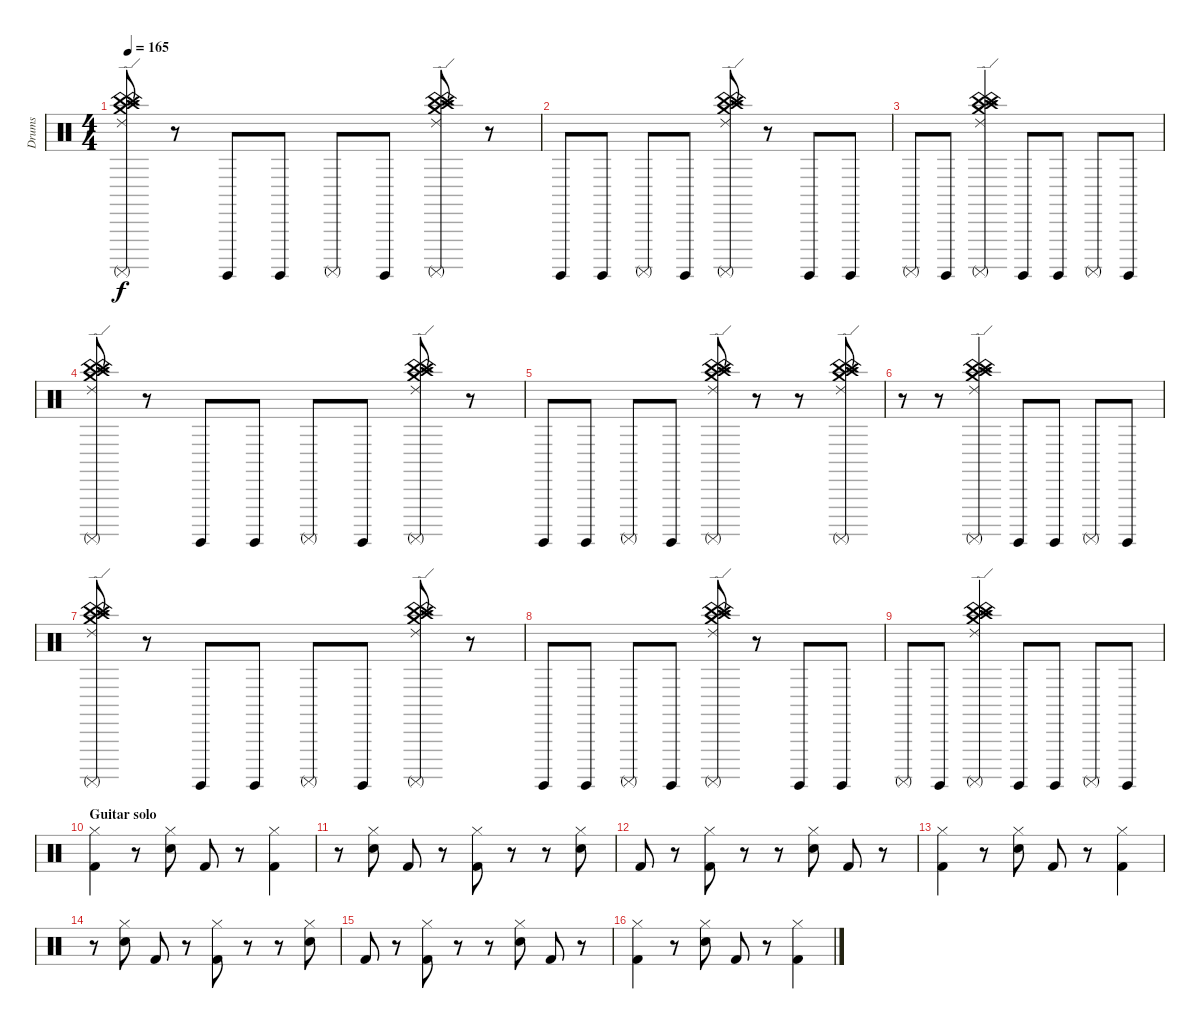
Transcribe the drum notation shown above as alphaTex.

\track ("Drums" "Drums") {instrument percussion}
\staff {score}
\articulation defaults
\ts (4 4)
\tempo 165
\clef neutral
\ks c
("Surdo (mute)" "China (hit)" "Crash high (hit)" "Crash medium (hit)" "Ride (edge) 2" "China (hit)").8{dy f} r.8 "Surdo (hit)".8 "Surdo (hit)".8 "Surdo (mute)".8 "Surdo (hit)".8 ("Surdo (mute)" "China (hit)" "Crash high (hit)" "Crash medium (hit)" "Ride (edge) 2" "China (hit)").8 r.8 |
"Surdo (hit)".8 "Surdo (hit)".8 "Surdo (mute)".8 "Surdo (hit)".8 ("Surdo (mute)" "China (hit)" "Crash high (hit)" "Crash medium (hit)" "Ride (edge) 2" "China (hit)").8 r.8 "Surdo (hit)".8 "Surdo (hit)".8 |
"Surdo (mute)".8 "Surdo (hit)".8 ("Surdo (mute)" "China (hit)" "Crash high (hit)" "Crash medium (hit)" "Ride (edge) 2" "China (hit)").4 "Surdo (hit)".8 "Surdo (hit)".8 "Surdo (mute)".8 "Surdo (hit)".8 |
("Surdo (mute)" "China (hit)" "Crash high (hit)" "Crash medium (hit)" "Ride (edge) 2" "China (hit)").8 r.8 "Surdo (hit)".8 "Surdo (hit)".8 "Surdo (mute)".8 "Surdo (hit)".8 ("Surdo (mute)" "China (hit)" "Crash high (hit)" "Crash medium (hit)" "Ride (edge) 2" "China (hit)").8 r.8 |
"Surdo (hit)".8 "Surdo (hit)".8 "Surdo (mute)".8 "Surdo (hit)".8 ("Surdo (mute)" "China (hit)" "Crash high (hit)" "Crash medium (hit)" "Ride (edge) 2" "China (hit)").8 r.8 r.8 ("Surdo (mute)" "China (hit)" "Crash high (hit)" "Crash medium (hit)" "Ride (edge) 2" "China (hit)").8 |
r.8 r.8 ("Surdo (mute)" "China (hit)" "Crash high (hit)" "Crash medium (hit)" "Ride (edge) 2" "China (hit)").4 "Surdo (hit)".8 "Surdo (hit)".8 "Surdo (mute)".8 "Surdo (hit)".8 |
("Surdo (mute)" "China (hit)" "Crash high (hit)" "Crash medium (hit)" "Ride (edge) 2" "China (hit)").8 r.8 "Surdo (hit)".8 "Surdo (hit)".8 "Surdo (mute)".8 "Surdo (hit)".8 ("Surdo (mute)" "China (hit)" "Crash high (hit)" "Crash medium (hit)" "Ride (edge) 2" "China (hit)").8 r.8 |
"Surdo (hit)".8 "Surdo (hit)".8 "Surdo (mute)".8 "Surdo (hit)".8 ("Surdo (mute)" "China (hit)" "Crash high (hit)" "Crash medium (hit)" "Ride (edge) 2" "China (hit)").8 r.8 "Surdo (hit)".8 "Surdo (hit)".8 |
"Surdo (mute)".8 "Surdo (hit)".8 ("Surdo (mute)" "China (hit)" "Crash high (hit)" "Crash medium (hit)" "Ride (edge) 2" "China (hit)").4 "Surdo (hit)".8 "Surdo (hit)".8 "Surdo (mute)".8 "Surdo (hit)".8 |
\section ("" "Guitar solo")
("Kick (hit) 2" "Hi-Hat (closed)").4 r.8 ("Electric Snare (hit)" "Hi-Hat (closed)").8 "Kick (hit) 2".8 r.8 ("Kick (hit) 2" "Hi-Hat (closed)").4 |
r.8 ("Electric Snare (hit)" "Hi-Hat (closed)").8 "Kick (hit) 2".8 r.8 ("Kick (hit) 2" "Hi-Hat (closed)").8 r.8 r.8 ("Hi-Hat (closed)" "Electric Snare (hit)").8 |
"Kick (hit) 2".8 r.8 ("Hi-Hat (closed)" "Kick (hit) 2").8 r.8 r.8 ("Hi-Hat (closed)" "Electric Snare (hit)").8 "Kick (hit) 2".8 r.8 |
("Kick (hit) 2" "Hi-Hat (closed)").4 r.8 ("Electric Snare (hit)" "Hi-Hat (closed)").8 "Kick (hit) 2".8 r.8 ("Kick (hit) 2" "Hi-Hat (closed)").4 |
r.8 ("Electric Snare (hit)" "Hi-Hat (closed)").8 "Kick (hit) 2".8 r.8 ("Kick (hit) 2" "Hi-Hat (closed)").8 r.8 r.8 ("Hi-Hat (closed)" "Electric Snare (hit)").8 |
"Kick (hit) 2".8 r.8 ("Hi-Hat (closed)" "Kick (hit) 2").8 r.8 r.8 ("Hi-Hat (closed)" "Electric Snare (hit)").8 "Kick (hit) 2".8 r.8 |
("Kick (hit) 2" "Hi-Hat (closed)").4 r.8 ("Electric Snare (hit)" "Hi-Hat (closed)").8 "Kick (hit) 2".8 r.8 ("Kick (hit) 2" "Hi-Hat (closed)").4
